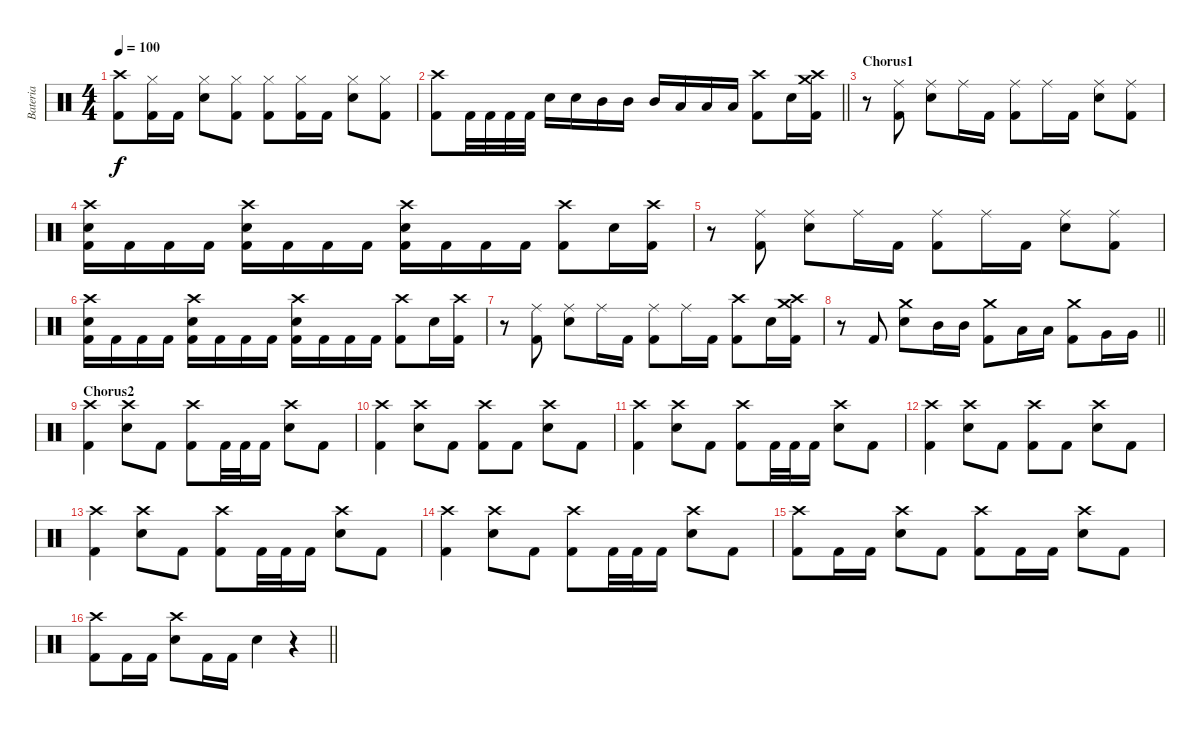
\track ("Bateria" "Bateria") {instrument percussion}
\staff {score}
\articulation defaults
\ts (4 4)
\tempo 100
\clef neutral
\ks c
("Crash high (hit)" "Kick (hit) 2").8{dy f} ("Hi-Hat (closed)" "Kick (hit) 2").16 "Kick (hit) 2".16 ("Hi-Hat (closed)" "Snare (hit) 2").8 ("Hi-Hat (closed)" "Kick (hit) 2").8 ("Hi-Hat (closed)" "Kick (hit) 2").8 ("Hi-Hat (closed)" "Kick (hit) 2").16 "Kick (hit) 2".16 ("Hi-Hat (closed)" "Snare (hit) 2").8 ("Hi-Hat (closed)" "Kick (hit) 2").8 |
\barLineRight lightlight
("Crash high (hit)" "Kick (hit) 2").8 "Kick (hit) 2".32 "Kick (hit) 2".32 "Kick (hit) 2".32 "Kick (hit) 2".32 "Snare (hit) 2".16 "Snare (hit) 2".16 "Mid Tom (hit)".16 "Mid Tom (hit)".16 "Mid Tom (hit)".16 "Low Tom (hit)".16 "Low Tom (hit)".16 "Low Tom (hit)".16 ("Crash high (hit)" "Kick (hit) 2").8 "Snare (hit) 2".16 ("Crash high (hit)" "Crash medium (hit)" "Kick (hit) 2").16 |
\section ("" "Chorus1")
r.8 ("Ride (middle)" "Kick (hit) 2").8 ("Ride (middle)" "Snare (hit) 2").8 "Ride (middle)".16 "Kick (hit) 2".16 ("Ride (middle)" "Kick (hit) 2").8 "Ride (middle)".16 "Kick (hit) 2".16 ("Ride (middle)" "Snare (hit) 2").8 ("Ride (middle)" "Kick (hit) 2").8 |
("Crash high (hit)" "Snare (hit) 2" "Kick (hit) 2").16 "Kick (hit) 2".16 "Kick (hit) 2".16 "Kick (hit) 2".16 ("Crash high (hit)" "Snare (hit) 2" "Kick (hit) 2").16 "Kick (hit) 2".16 "Kick (hit) 2".16 "Kick (hit) 2".16 ("Crash high (hit)" "Snare (hit) 2" "Kick (hit) 2").16 "Kick (hit) 2".16 "Kick (hit) 2".16 "Kick (hit) 2".16 ("Crash high (hit)" "Kick (hit) 2").8 "Snare (hit) 2".16 ("Crash high (hit)" "Kick (hit) 2").16 |
r.8 ("Ride (middle)" "Kick (hit) 2").8 ("Ride (middle)" "Snare (hit) 2").8 "Ride (middle)".16 "Kick (hit) 2".16 ("Ride (middle)" "Kick (hit) 2").8 "Ride (middle)".16 "Kick (hit) 2".16 ("Ride (middle)" "Snare (hit) 2").8 ("Ride (middle)" "Kick (hit) 2").8 |
("Crash high (hit)" "Snare (hit) 2" "Kick (hit) 2").16 "Kick (hit) 2".16 "Kick (hit) 2".16 "Kick (hit) 2".16 ("Crash high (hit)" "Snare (hit) 2" "Kick (hit) 2").16 "Kick (hit) 2".16 "Kick (hit) 2".16 "Kick (hit) 2".16 ("Crash high (hit)" "Snare (hit) 2" "Kick (hit) 2").16 "Kick (hit) 2".16 "Kick (hit) 2".16 "Kick (hit) 2".16 ("Crash high (hit)" "Kick (hit) 2").8 "Snare (hit) 2".16 ("Crash high (hit)" "Kick (hit) 2").16 |
r.8 ("Ride (middle)" "Kick (hit) 2").8 ("Ride (middle)" "Snare (hit) 2").8 "Ride (middle)".16 "Kick (hit) 2".16 ("Ride (middle)" "Kick (hit) 2").8 "Ride (middle)".16 "Kick (hit) 2".16 ("Crash high (hit)" "Kick (hit) 2").8 "Snare (hit) 2".16 ("Crash high (hit)" "Crash medium (hit)" "Kick (hit) 2").16 |
\barLineRight lightlight
r.8 "Kick (hit) 2".8 ("Crash medium (hit)" "Snare (hit) 2").8 "Mid Tom (hit)".16 "Mid Tom (hit)".16 ("Crash medium (hit)" "Kick (hit) 2").8 "Low Tom (hit)".16 "Low Tom (hit)".16 ("Crash medium (hit)" "Kick (hit) 2").8 "Very Low Tom (hit)".16 "Very Low Tom (hit)".16 |
\section ("" "Chorus2")
("Crash high (hit)" "Kick (hit) 2").4 ("Crash high (hit)" "Snare (hit) 2").8 "Kick (hit) 2".8 ("Crash high (hit)" "Kick (hit) 2").8 "Kick (hit) 2".32 "Kick (hit) 2".32 "Kick (hit) 2".16 ("Crash high (hit)" "Snare (hit) 2").8 "Kick (hit) 2".8 |
("Crash high (hit)" "Kick (hit) 2").4 ("Crash high (hit)" "Snare (hit) 2").8 "Kick (hit) 2".8 ("Crash high (hit)" "Kick (hit) 2").8 "Kick (hit) 2".8 ("Crash high (hit)" "Snare (hit) 2").8 "Kick (hit) 2".8 |
("Crash high (hit)" "Kick (hit) 2").4 ("Crash high (hit)" "Snare (hit) 2").8 "Kick (hit) 2".8 ("Crash high (hit)" "Kick (hit) 2").8 "Kick (hit) 2".32 "Kick (hit) 2".32 "Kick (hit) 2".16 ("Crash high (hit)" "Snare (hit) 2").8 "Kick (hit) 2".8 |
("Crash high (hit)" "Kick (hit) 2").4 ("Crash high (hit)" "Snare (hit) 2").8 "Kick (hit) 2".8 ("Crash high (hit)" "Kick (hit) 2").8 "Kick (hit) 2".8 ("Crash high (hit)" "Snare (hit) 2").8 "Kick (hit) 2".8 |
("Crash high (hit)" "Kick (hit) 2").4 ("Crash high (hit)" "Snare (hit) 2").8 "Kick (hit) 2".8 ("Crash high (hit)" "Kick (hit) 2").8 "Kick (hit) 2".32 "Kick (hit) 2".32 "Kick (hit) 2".16 ("Crash high (hit)" "Snare (hit) 2").8 "Kick (hit) 2".8 |
("Crash high (hit)" "Kick (hit) 2").4 ("Crash high (hit)" "Snare (hit) 2").8 "Kick (hit) 2".8 ("Crash high (hit)" "Kick (hit) 2").8 "Kick (hit) 2".32 "Kick (hit) 2".32 "Kick (hit) 2".16 ("Crash high (hit)" "Snare (hit) 2").8 "Kick (hit) 2".8 |
("Crash high (hit)" "Kick (hit) 2").8 "Kick (hit) 2".16 "Kick (hit) 2".16 ("Crash high (hit)" "Snare (hit) 2").8 "Kick (hit) 2".8 ("Crash high (hit)" "Kick (hit) 2").8 "Kick (hit) 2".16 "Kick (hit) 2".16 ("Crash high (hit)" "Snare (hit) 2").8 "Kick (hit) 2".8 |
\barLineRight lightlight
("Crash high (hit)" "Kick (hit) 2").8 "Kick (hit) 2".16 "Kick (hit) 2".16 ("Crash high (hit)" "Snare (hit) 2").8 "Kick (hit) 2".16 "Kick (hit) 2".16 "Snare (hit) 2".4 r.4
